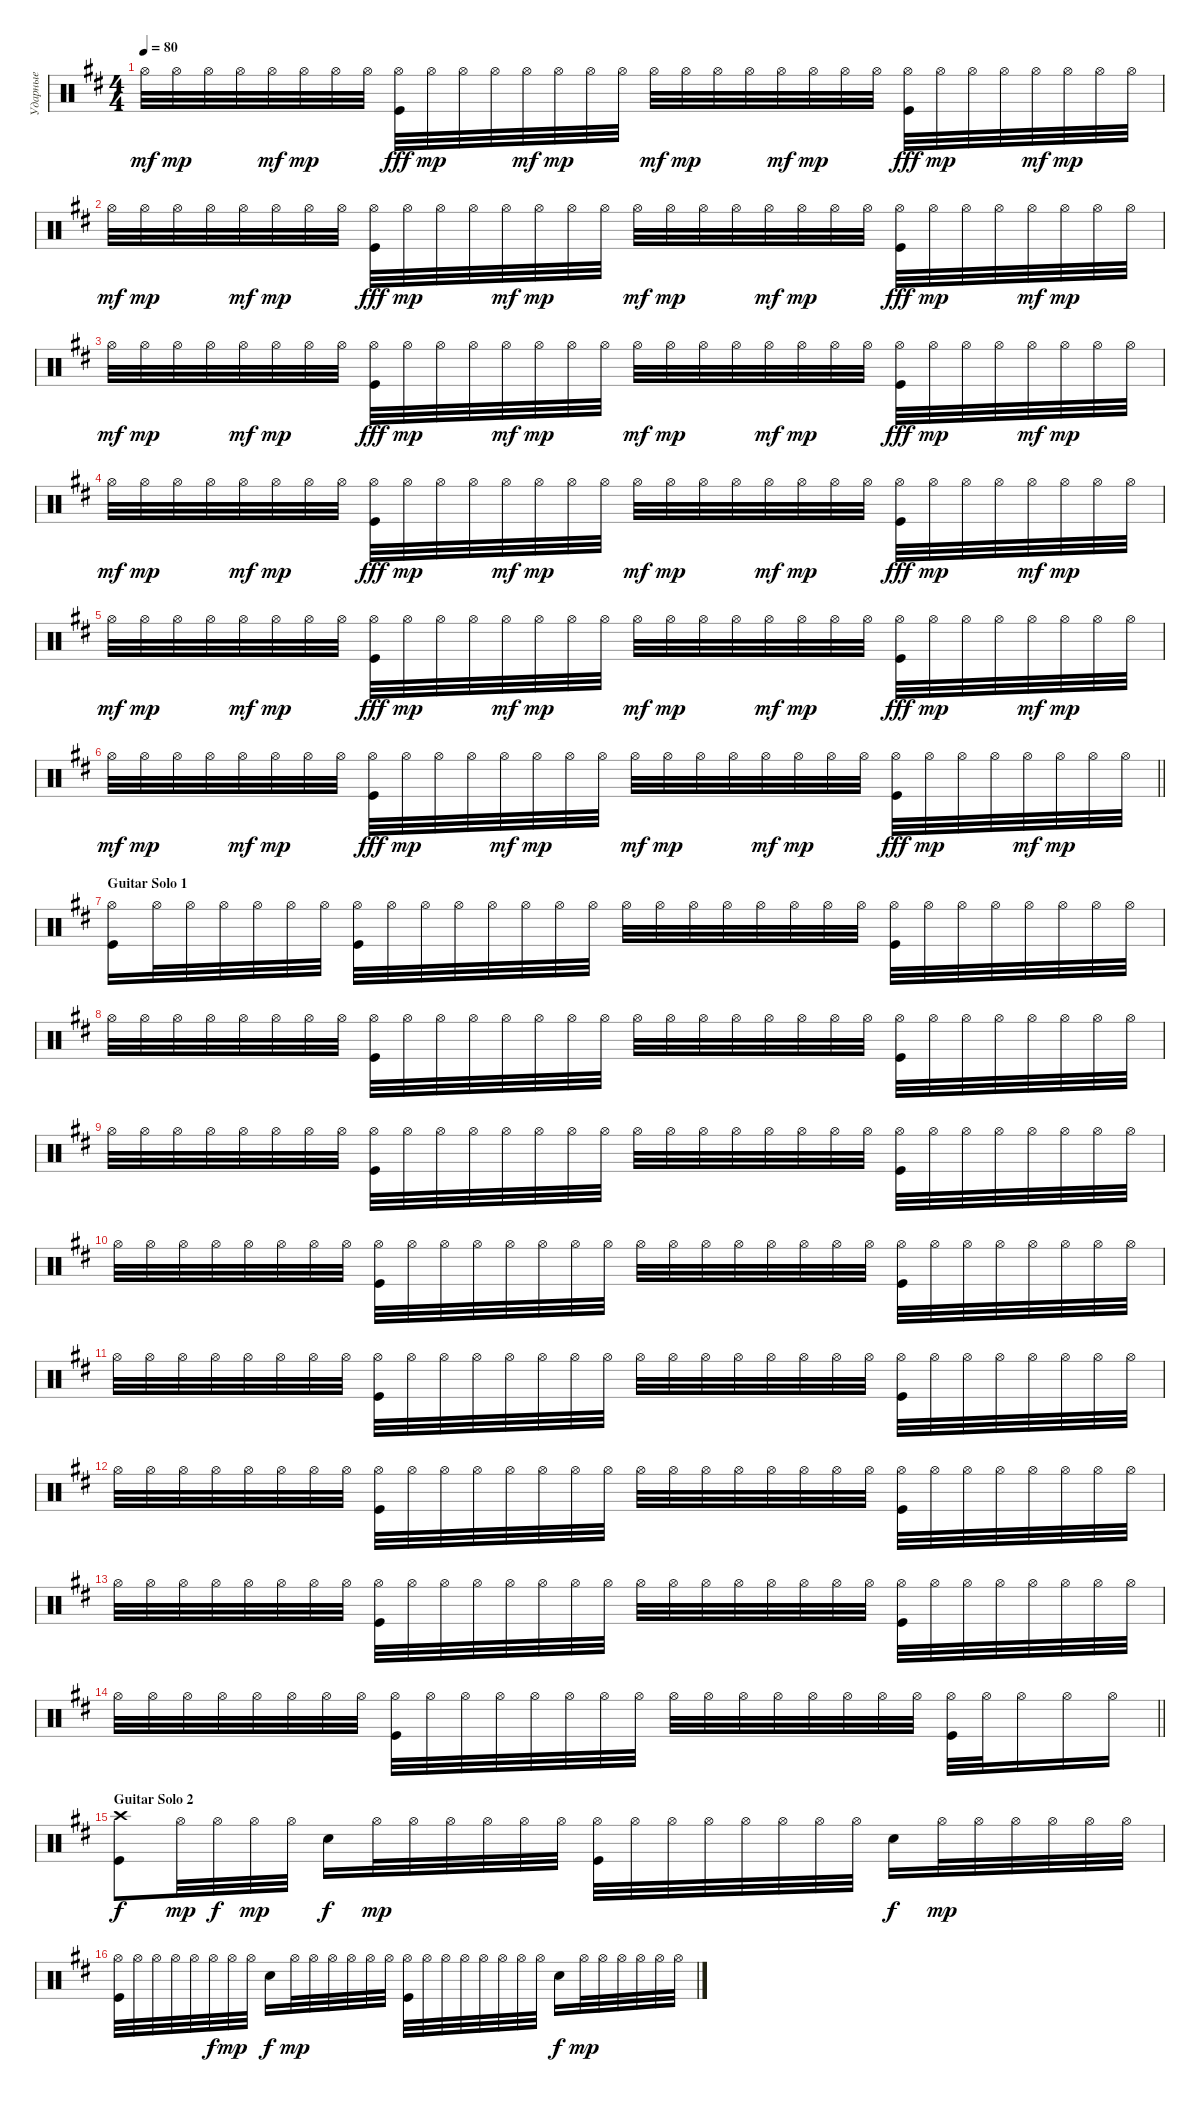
\track ("Ударные" "Ударные") {instrument percussion}
\staff {score}
\articulation defaults
\ts (4 4)
\tempo 80
\clef neutral
\ks bminor "Hi-Hat (open)".32{dy mf} "Hi-Hat (open)".32{dy mp} "Hi-Hat (open)".32 "Hi-Hat (open)".32 "Hi-Hat (open)".32{dy mf} "Hi-Hat (open)".32{dy mp} "Hi-Hat (open)".32 "Hi-Hat (open)".32
("Hi-Hat (open)" "Kick (hit)").32{dy fff} "Hi-Hat (open)".32{dy mp} "Hi-Hat (open)".32 "Hi-Hat (open)".32 "Hi-Hat (open)".32{dy mf} "Hi-Hat (open)".32{dy mp} "Hi-Hat (open)".32 "Hi-Hat (open)".32 "Hi-Hat (open)".32{dy mf} "Hi-Hat (open)".32{dy mp} "Hi-Hat (open)".32 "Hi-Hat (open)".32 "Hi-Hat (open)".32{dy mf} "Hi-Hat (open)".32{dy mp} "Hi-Hat (open)".32 "Hi-Hat (open)".32 ("Hi-Hat (open)" "Kick (hit)").32{dy fff} "Hi-Hat (open)".32{dy mp} "Hi-Hat (open)".32 "Hi-Hat (open)".32 "Hi-Hat (open)".32{dy mf} "Hi-Hat (open)".32{dy mp} "Hi-Hat (open)".32 "Hi-Hat (open)".32 |
"Hi-Hat (open)".32{dy mf} "Hi-Hat (open)".32{dy mp} "Hi-Hat (open)".32 "Hi-Hat (open)".32 "Hi-Hat (open)".32{dy mf} "Hi-Hat (open)".32{dy mp} "Hi-Hat (open)".32 "Hi-Hat (open)".32 ("Hi-Hat (open)" "Kick (hit)").32{dy fff} "Hi-Hat (open)".32{dy mp} "Hi-Hat (open)".32 "Hi-Hat (open)".32 "Hi-Hat (open)".32{dy mf} "Hi-Hat (open)".32{dy mp} "Hi-Hat (open)".32 "Hi-Hat (open)".32 "Hi-Hat (open)".32{dy mf} "Hi-Hat (open)".32{dy mp} "Hi-Hat (open)".32 "Hi-Hat (open)".32 "Hi-Hat (open)".32{dy mf} "Hi-Hat (open)".32{dy mp} "Hi-Hat (open)".32 "Hi-Hat (open)".32 ("Hi-Hat (open)" "Kick (hit)").32{dy fff} "Hi-Hat (open)".32{dy mp} "Hi-Hat (open)".32 "Hi-Hat (open)".32 "Hi-Hat (open)".32{dy mf} "Hi-Hat (open)".32{dy mp} "Hi-Hat (open)".32 "Hi-Hat (open)".32 |
"Hi-Hat (open)".32{dy mf} "Hi-Hat (open)".32{dy mp} "Hi-Hat (open)".32 "Hi-Hat (open)".32 "Hi-Hat (open)".32{dy mf} "Hi-Hat (open)".32{dy mp} "Hi-Hat (open)".32 "Hi-Hat (open)".32 ("Hi-Hat (open)" "Kick (hit)").32{dy fff} "Hi-Hat (open)".32{dy mp} "Hi-Hat (open)".32 "Hi-Hat (open)".32 "Hi-Hat (open)".32{dy mf} "Hi-Hat (open)".32{dy mp} "Hi-Hat (open)".32 "Hi-Hat (open)".32 "Hi-Hat (open)".32{dy mf} "Hi-Hat (open)".32{dy mp} "Hi-Hat (open)".32 "Hi-Hat (open)".32 "Hi-Hat (open)".32{dy mf} "Hi-Hat (open)".32{dy mp} "Hi-Hat (open)".32 "Hi-Hat (open)".32 ("Hi-Hat (open)" "Kick (hit)").32{dy fff} "Hi-Hat (open)".32{dy mp} "Hi-Hat (open)".32 "Hi-Hat (open)".32 "Hi-Hat (open)".32{dy mf} "Hi-Hat (open)".32{dy mp} "Hi-Hat (open)".32 "Hi-Hat (open)".32 |
"Hi-Hat (open)".32{dy mf} "Hi-Hat (open)".32{dy mp} "Hi-Hat (open)".32 "Hi-Hat (open)".32 "Hi-Hat (open)".32{dy mf} "Hi-Hat (open)".32{dy mp} "Hi-Hat (open)".32 "Hi-Hat (open)".32 ("Hi-Hat (open)" "Kick (hit)").32{dy fff} "Hi-Hat (open)".32{dy mp} "Hi-Hat (open)".32 "Hi-Hat (open)".32 "Hi-Hat (open)".32{dy mf} "Hi-Hat (open)".32{dy mp} "Hi-Hat (open)".32 "Hi-Hat (open)".32 "Hi-Hat (open)".32{dy mf} "Hi-Hat (open)".32{dy mp} "Hi-Hat (open)".32 "Hi-Hat (open)".32 "Hi-Hat (open)".32{dy mf} "Hi-Hat (open)".32{dy mp} "Hi-Hat (open)".32 "Hi-Hat (open)".32 ("Hi-Hat (open)" "Kick (hit)").32{dy fff} "Hi-Hat (open)".32{dy mp} "Hi-Hat (open)".32 "Hi-Hat (open)".32 "Hi-Hat (open)".32{dy mf} "Hi-Hat (open)".32{dy mp} "Hi-Hat (open)".32 "Hi-Hat (open)".32 |
"Hi-Hat (open)".32{dy mf} "Hi-Hat (open)".32{dy mp} "Hi-Hat (open)".32 "Hi-Hat (open)".32 "Hi-Hat (open)".32{dy mf} "Hi-Hat (open)".32{dy mp} "Hi-Hat (open)".32 "Hi-Hat (open)".32 ("Hi-Hat (open)" "Kick (hit)").32{dy fff} "Hi-Hat (open)".32{dy mp} "Hi-Hat (open)".32 "Hi-Hat (open)".32 "Hi-Hat (open)".32{dy mf} "Hi-Hat (open)".32{dy mp} "Hi-Hat (open)".32 "Hi-Hat (open)".32 "Hi-Hat (open)".32{dy mf} "Hi-Hat (open)".32{dy mp} "Hi-Hat (open)".32 "Hi-Hat (open)".32 "Hi-Hat (open)".32{dy mf} "Hi-Hat (open)".32{dy mp} "Hi-Hat (open)".32 "Hi-Hat (open)".32 ("Hi-Hat (open)" "Kick (hit)").32{dy fff} "Hi-Hat (open)".32{dy mp} "Hi-Hat (open)".32 "Hi-Hat (open)".32 "Hi-Hat (open)".32{dy mf} "Hi-Hat (open)".32{dy mp} "Hi-Hat (open)".32 "Hi-Hat (open)".32 |
\barLineRight lightlight "Hi-Hat (open)".32{dy mf} "Hi-Hat (open)".32{dy mp} "Hi-Hat (open)".32 "Hi-Hat (open)".32 "Hi-Hat (open)".32{dy mf} "Hi-Hat (open)".32{dy mp} "Hi-Hat (open)".32 "Hi-Hat (open)".32
("Hi-Hat (open)" "Kick (hit)").32{dy fff} "Hi-Hat (open)".32{dy mp} "Hi-Hat (open)".32 "Hi-Hat (open)".32 "Hi-Hat (open)".32{dy mf} "Hi-Hat (open)".32{dy mp} "Hi-Hat (open)".32 "Hi-Hat (open)".32 "Hi-Hat (open)".32{dy mf} "Hi-Hat (open)".32{dy mp} "Hi-Hat (open)".32 "Hi-Hat (open)".32 "Hi-Hat (open)".32{dy mf} "Hi-Hat (open)".32{dy mp} "Hi-Hat (open)".32 "Hi-Hat (open)".32 ("Hi-Hat (open)" "Kick (hit)").32{dy fff} "Hi-Hat (open)".32{dy mp} "Hi-Hat (open)".32 "Hi-Hat (open)".32 "Hi-Hat (open)".32{dy mf} "Hi-Hat (open)".32{dy mp} "Hi-Hat (open)".32 "Hi-Hat (open)".32 |
\section ("" "Guitar Solo 1")
("Hi-Hat (open)" "Kick (hit)").16 "Hi-Hat (open)".32 "Hi-Hat (open)".32 "Hi-Hat (open)".32 "Hi-Hat (open)".32 "Hi-Hat (open)".32 "Hi-Hat (open)".32 ("Kick (hit)" "Hi-Hat (open)").32 "Hi-Hat (open)".32 "Hi-Hat (open)".32 "Hi-Hat (open)".32 "Hi-Hat (open)".32 "Hi-Hat (open)".32 "Hi-Hat (open)".32 "Hi-Hat (open)".32 "Hi-Hat (open)".32 "Hi-Hat (open)".32 "Hi-Hat (open)".32 "Hi-Hat (open)".32 "Hi-Hat (open)".32 "Hi-Hat (open)".32 "Hi-Hat (open)".32 "Hi-Hat (open)".32 ("Kick (hit)" "Hi-Hat (open)").32 "Hi-Hat (open)".32 "Hi-Hat (open)".32 "Hi-Hat (open)".32 "Hi-Hat (open)".32 "Hi-Hat (open)".32 "Hi-Hat (open)".32 "Hi-Hat (open)".32 |
"Hi-Hat (open)".32 "Hi-Hat (open)".32 "Hi-Hat (open)".32 "Hi-Hat (open)".32 "Hi-Hat (open)".32 "Hi-Hat (open)".32 "Hi-Hat (open)".32 "Hi-Hat (open)".32 ("Kick (hit)" "Hi-Hat (open)").32 "Hi-Hat (open)".32 "Hi-Hat (open)".32 "Hi-Hat (open)".32 "Hi-Hat (open)".32 "Hi-Hat (open)".32 "Hi-Hat (open)".32 "Hi-Hat (open)".32 "Hi-Hat (open)".32 "Hi-Hat (open)".32 "Hi-Hat (open)".32 "Hi-Hat (open)".32 "Hi-Hat (open)".32 "Hi-Hat (open)".32 "Hi-Hat (open)".32 "Hi-Hat (open)".32 ("Kick (hit)" "Hi-Hat (open)").32 "Hi-Hat (open)".32 "Hi-Hat (open)".32 "Hi-Hat (open)".32 "Hi-Hat (open)".32 "Hi-Hat (open)".32 "Hi-Hat (open)".32 "Hi-Hat (open)".32 |
"Hi-Hat (open)".32 "Hi-Hat (open)".32 "Hi-Hat (open)".32 "Hi-Hat (open)".32 "Hi-Hat (open)".32 "Hi-Hat (open)".32 "Hi-Hat (open)".32 "Hi-Hat (open)".32 ("Kick (hit)" "Hi-Hat (open)").32 "Hi-Hat (open)".32 "Hi-Hat (open)".32 "Hi-Hat (open)".32 "Hi-Hat (open)".32 "Hi-Hat (open)".32 "Hi-Hat (open)".32 "Hi-Hat (open)".32 "Hi-Hat (open)".32 "Hi-Hat (open)".32 "Hi-Hat (open)".32 "Hi-Hat (open)".32 "Hi-Hat (open)".32 "Hi-Hat (open)".32 "Hi-Hat (open)".32 "Hi-Hat (open)".32 ("Kick (hit)" "Hi-Hat (open)").32 "Hi-Hat (open)".32 "Hi-Hat (open)".32 "Hi-Hat (open)".32 "Hi-Hat (open)".32 "Hi-Hat (open)".32 "Hi-Hat (open)".32 "Hi-Hat (open)".32 |
"Hi-Hat (open)".32 "Hi-Hat (open)".32 "Hi-Hat (open)".32 "Hi-Hat (open)".32 "Hi-Hat (open)".32 "Hi-Hat (open)".32 "Hi-Hat (open)".32 "Hi-Hat (open)".32 ("Kick (hit)" "Hi-Hat (open)").32 "Hi-Hat (open)".32 "Hi-Hat (open)".32 "Hi-Hat (open)".32 "Hi-Hat (open)".32 "Hi-Hat (open)".32 "Hi-Hat (open)".32 "Hi-Hat (open)".32 "Hi-Hat (open)".32 "Hi-Hat (open)".32 "Hi-Hat (open)".32 "Hi-Hat (open)".32 "Hi-Hat (open)".32 "Hi-Hat (open)".32 "Hi-Hat (open)".32 "Hi-Hat (open)".32 ("Kick (hit)" "Hi-Hat (open)").32 "Hi-Hat (open)".32 "Hi-Hat (open)".32 "Hi-Hat (open)".32 "Hi-Hat (open)".32 "Hi-Hat (open)".32 "Hi-Hat (open)".32 "Hi-Hat (open)".32 |
"Hi-Hat (open)".32 "Hi-Hat (open)".32 "Hi-Hat (open)".32 "Hi-Hat (open)".32 "Hi-Hat (open)".32 "Hi-Hat (open)".32 "Hi-Hat (open)".32 "Hi-Hat (open)".32 ("Kick (hit)" "Hi-Hat (open)").32 "Hi-Hat (open)".32 "Hi-Hat (open)".32 "Hi-Hat (open)".32 "Hi-Hat (open)".32 "Hi-Hat (open)".32 "Hi-Hat (open)".32 "Hi-Hat (open)".32 "Hi-Hat (open)".32 "Hi-Hat (open)".32 "Hi-Hat (open)".32 "Hi-Hat (open)".32 "Hi-Hat (open)".32 "Hi-Hat (open)".32 "Hi-Hat (open)".32 "Hi-Hat (open)".32 ("Kick (hit)" "Hi-Hat (open)").32 "Hi-Hat (open)".32 "Hi-Hat (open)".32 "Hi-Hat (open)".32 "Hi-Hat (open)".32 "Hi-Hat (open)".32 "Hi-Hat (open)".32 "Hi-Hat (open)".32 |
"Hi-Hat (open)".32 "Hi-Hat (open)".32 "Hi-Hat (open)".32 "Hi-Hat (open)".32 "Hi-Hat (open)".32 "Hi-Hat (open)".32 "Hi-Hat (open)".32 "Hi-Hat (open)".32 ("Kick (hit)" "Hi-Hat (open)").32 "Hi-Hat (open)".32 "Hi-Hat (open)".32 "Hi-Hat (open)".32 "Hi-Hat (open)".32 "Hi-Hat (open)".32 "Hi-Hat (open)".32 "Hi-Hat (open)".32 "Hi-Hat (open)".32 "Hi-Hat (open)".32 "Hi-Hat (open)".32 "Hi-Hat (open)".32 "Hi-Hat (open)".32 "Hi-Hat (open)".32 "Hi-Hat (open)".32 "Hi-Hat (open)".32 ("Kick (hit)" "Hi-Hat (open)").32 "Hi-Hat (open)".32 "Hi-Hat (open)".32 "Hi-Hat (open)".32 "Hi-Hat (open)".32 "Hi-Hat (open)".32 "Hi-Hat (open)".32 "Hi-Hat (open)".32 |
"Hi-Hat (open)".32 "Hi-Hat (open)".32 "Hi-Hat (open)".32 "Hi-Hat (open)".32 "Hi-Hat (open)".32 "Hi-Hat (open)".32 "Hi-Hat (open)".32 "Hi-Hat (open)".32 ("Kick (hit)" "Hi-Hat (open)").32 "Hi-Hat (open)".32 "Hi-Hat (open)".32 "Hi-Hat (open)".32 "Hi-Hat (open)".32 "Hi-Hat (open)".32 "Hi-Hat (open)".32 "Hi-Hat (open)".32 "Hi-Hat (open)".32 "Hi-Hat (open)".32 "Hi-Hat (open)".32 "Hi-Hat (open)".32 "Hi-Hat (open)".32 "Hi-Hat (open)".32 "Hi-Hat (open)".32 "Hi-Hat (open)".32 ("Kick (hit)" "Hi-Hat (open)").32 "Hi-Hat (open)".32 "Hi-Hat (open)".32 "Hi-Hat (open)".32 "Hi-Hat (open)".32 "Hi-Hat (open)".32 "Hi-Hat (open)".32 "Hi-Hat (open)".32 |
\barLineRight lightlight "Hi-Hat (open)".32 "Hi-Hat (open)".32 "Hi-Hat (open)".32 "Hi-Hat (open)".32 "Hi-Hat (open)".32 "Hi-Hat (open)".32 "Hi-Hat (open)".32 "Hi-Hat (open)".32
("Kick (hit)" "Hi-Hat (open)").32 "Hi-Hat (open)".32 "Hi-Hat (open)".32 "Hi-Hat (open)".32 "Hi-Hat (open)".32 "Hi-Hat (open)".32 "Hi-Hat (open)".32 "Hi-Hat (open)".32 "Hi-Hat (open)".32 "Hi-Hat (open)".32 "Hi-Hat (open)".32 "Hi-Hat (open)".32 "Hi-Hat (open)".32 "Hi-Hat (open)".32 "Hi-Hat (open)".32 "Hi-Hat (open)".32 ("Kick (hit)" "Hi-Hat (open)").32 "Hi-Hat (open)".32 "Hi-Hat (open)".16 "Hi-Hat (open)".16 "Hi-Hat (open)".16 |
\section ("" "Guitar Solo 2")
("Kick (hit)" "Crash high (hit)").8{dy f} "Hi-Hat (open)".32{dy mp} "Hi-Hat (open)".32{dy f} "Hi-Hat (open)".32{dy mp} "Hi-Hat (open)".32 "Snare (hit) 2".16{dy f} "Hi-Hat (open)".32{dy mp} "Hi-Hat (open)".32 "Hi-Hat (open)".32 "Hi-Hat (open)".32 "Hi-Hat (open)".32 "Hi-Hat (open)".32 ("Kick (hit)" "Hi-Hat (open)").32 "Hi-Hat (open)".32 "Hi-Hat (open)".32 "Hi-Hat (open)".32 "Hi-Hat (open)".32 "Hi-Hat (open)".32 "Hi-Hat (open)".32 "Hi-Hat (open)".32 "Snare (hit) 2".16{dy f} "Hi-Hat (open)".32{dy mp} "Hi-Hat (open)".32 "Hi-Hat (open)".32 "Hi-Hat (open)".32 "Hi-Hat (open)".32 "Hi-Hat (open)".32 |
("Kick (hit)" "Hi-Hat (open)").32 "Hi-Hat (open)".32 "Hi-Hat (open)".32 "Hi-Hat (open)".32 "Hi-Hat (open)".32 "Hi-Hat (open)".32{dy f} "Hi-Hat (open)".32{dy mp} "Hi-Hat (open)".32 "Snare (hit) 2".16{dy f} "Hi-Hat (open)".32{dy mp} "Hi-Hat (open)".32 "Hi-Hat (open)".32 "Hi-Hat (open)".32 "Hi-Hat (open)".32 "Hi-Hat (open)".32 ("Kick (hit)" "Hi-Hat (open)").32 "Hi-Hat (open)".32 "Hi-Hat (open)".32 "Hi-Hat (open)".32 "Hi-Hat (open)".32 "Hi-Hat (open)".32 "Hi-Hat (open)".32 "Hi-Hat (open)".32 "Snare (hit) 2".16{dy f} "Hi-Hat (open)".32{dy mp} "Hi-Hat (open)".32 "Hi-Hat (open)".32 "Hi-Hat (open)".32 "Hi-Hat (open)".32 "Hi-Hat (open)".32
